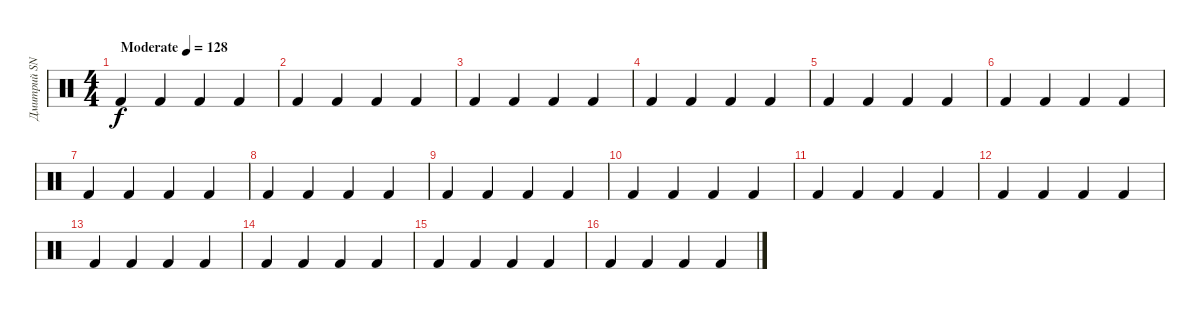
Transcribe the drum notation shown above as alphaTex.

\track ("Дмитрий SNAKE Хакимов" "Дмитрий SN") {instrument percussion}
\staff {score}
\articulation defaults
\ts (4 4)
\tempo (128 "Moderate")
\clef neutral
\ks c "Kick (hit) 2".4{dy f} "Kick (hit) 2".4 "Kick (hit) 2".4 "Kick (hit) 2".4
|
"Kick (hit) 2".4 "Kick (hit) 2".4 "Kick (hit) 2".4 "Kick (hit) 2".4 |
"Kick (hit) 2".4 "Kick (hit) 2".4 "Kick (hit) 2".4 "Kick (hit) 2".4 |
"Kick (hit) 2".4 "Kick (hit) 2".4 "Kick (hit) 2".4 "Kick (hit) 2".4 |
"Kick (hit) 2".4 "Kick (hit) 2".4 "Kick (hit) 2".4 "Kick (hit) 2".4 |
"Kick (hit) 2".4 "Kick (hit) 2".4 "Kick (hit) 2".4 "Kick (hit) 2".4 |
"Kick (hit) 2".4 "Kick (hit) 2".4 "Kick (hit) 2".4 "Kick (hit) 2".4 |
"Kick (hit) 2".4 "Kick (hit) 2".4 "Kick (hit) 2".4 "Kick (hit) 2".4 |
"Kick (hit) 2".4 "Kick (hit) 2".4 "Kick (hit) 2".4 "Kick (hit) 2".4 |
"Kick (hit) 2".4 "Kick (hit) 2".4 "Kick (hit) 2".4 "Kick (hit) 2".4 |
"Kick (hit) 2".4 "Kick (hit) 2".4 "Kick (hit) 2".4 "Kick (hit) 2".4 |
"Kick (hit) 2".4 "Kick (hit) 2".4 "Kick (hit) 2".4 "Kick (hit) 2".4 |
"Kick (hit) 2".4 "Kick (hit) 2".4 "Kick (hit) 2".4 "Kick (hit) 2".4 |
"Kick (hit) 2".4 "Kick (hit) 2".4 "Kick (hit) 2".4 "Kick (hit) 2".4 |
"Kick (hit) 2".4 "Kick (hit) 2".4 "Kick (hit) 2".4 "Kick (hit) 2".4 |
"Kick (hit) 2".4 "Kick (hit) 2".4 "Kick (hit) 2".4 "Kick (hit) 2".4
